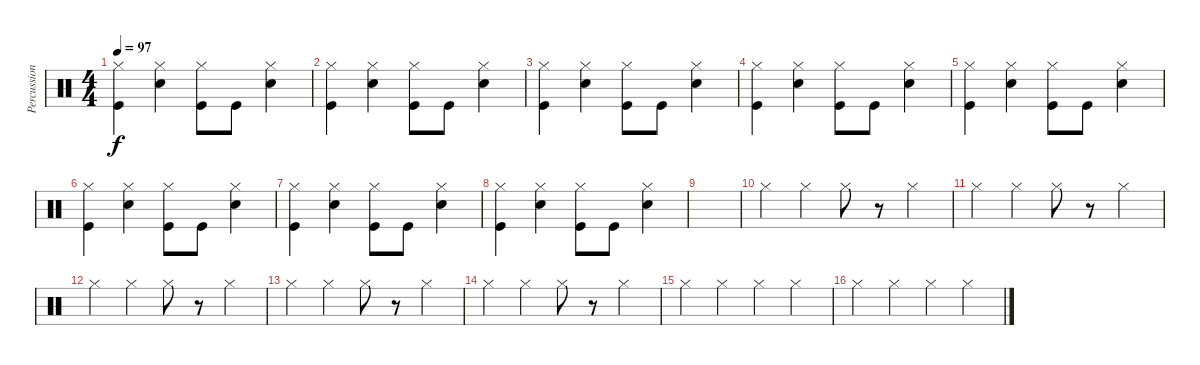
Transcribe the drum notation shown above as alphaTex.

\track ("Percussion" "Percussion") {instrument percussion}
\staff {score}
\articulation defaults
\ts (4 4)
\tempo 97
\clef neutral
\ks c
("Hi-Hat (closed)" "Kick (hit)").4{dy f} ("Hi-Hat (closed)" "Snare (hit) 2").4 ("Hi-Hat (closed)" "Kick (hit)").8 "Kick (hit)".8 ("Hi-Hat (closed)" "Snare (hit) 2").4 |
("Hi-Hat (closed)" "Kick (hit)").4 ("Hi-Hat (closed)" "Snare (hit) 2").4 ("Hi-Hat (closed)" "Kick (hit)").8 "Kick (hit)".8 ("Hi-Hat (closed)" "Snare (hit) 2").4 |
("Hi-Hat (closed)" "Kick (hit)").4 ("Hi-Hat (closed)" "Snare (hit) 2").4 ("Hi-Hat (closed)" "Kick (hit)").8 "Kick (hit)".8 ("Hi-Hat (closed)" "Snare (hit) 2").4 |
("Hi-Hat (closed)" "Kick (hit)").4 ("Hi-Hat (closed)" "Snare (hit) 2").4 ("Hi-Hat (closed)" "Kick (hit)").8 "Kick (hit)".8 ("Hi-Hat (closed)" "Snare (hit) 2").4 |
("Hi-Hat (closed)" "Kick (hit)").4 ("Hi-Hat (closed)" "Snare (hit) 2").4 ("Hi-Hat (closed)" "Kick (hit)").8 "Kick (hit)".8 ("Hi-Hat (closed)" "Snare (hit) 2").4 |
("Hi-Hat (closed)" "Kick (hit)").4 ("Hi-Hat (closed)" "Snare (hit) 2").4 ("Hi-Hat (closed)" "Kick (hit)").8 "Kick (hit)".8 ("Hi-Hat (closed)" "Snare (hit) 2").4 |
("Hi-Hat (closed)" "Kick (hit)").4 ("Hi-Hat (closed)" "Snare (hit) 2").4 ("Hi-Hat (closed)" "Kick (hit)").8 "Kick (hit)".8 ("Hi-Hat (closed)" "Snare (hit) 2").4 |
("Hi-Hat (closed)" "Kick (hit)").4 ("Hi-Hat (closed)" "Snare (hit) 2").4 ("Hi-Hat (closed)" "Kick (hit)").8 "Kick (hit)".8 ("Hi-Hat (closed)" "Snare (hit) 2").4 |
|
"Hi-Hat (closed)".4 "Hi-Hat (closed)".4 "Hi-Hat (closed)".8 r.8 "Hi-Hat (closed)".4 |
"Hi-Hat (closed)".4 "Hi-Hat (closed)".4 "Hi-Hat (closed)".8 r.8 "Hi-Hat (closed)".4 |
"Hi-Hat (closed)".4 "Hi-Hat (closed)".4 "Hi-Hat (closed)".8 r.8 "Hi-Hat (closed)".4 |
"Hi-Hat (closed)".4 "Hi-Hat (closed)".4 "Hi-Hat (closed)".8 r.8 "Hi-Hat (closed)".4 |
"Hi-Hat (closed)".4 "Hi-Hat (closed)".4 "Hi-Hat (closed)".8 r.8 "Hi-Hat (closed)".4 |
"Hi-Hat (closed)".4 "Hi-Hat (closed)".4 "Hi-Hat (closed)".4 "Hi-Hat (closed)".4 |
"Hi-Hat (closed)".4 "Hi-Hat (closed)".4 "Hi-Hat (closed)".4 "Hi-Hat (closed)".4
